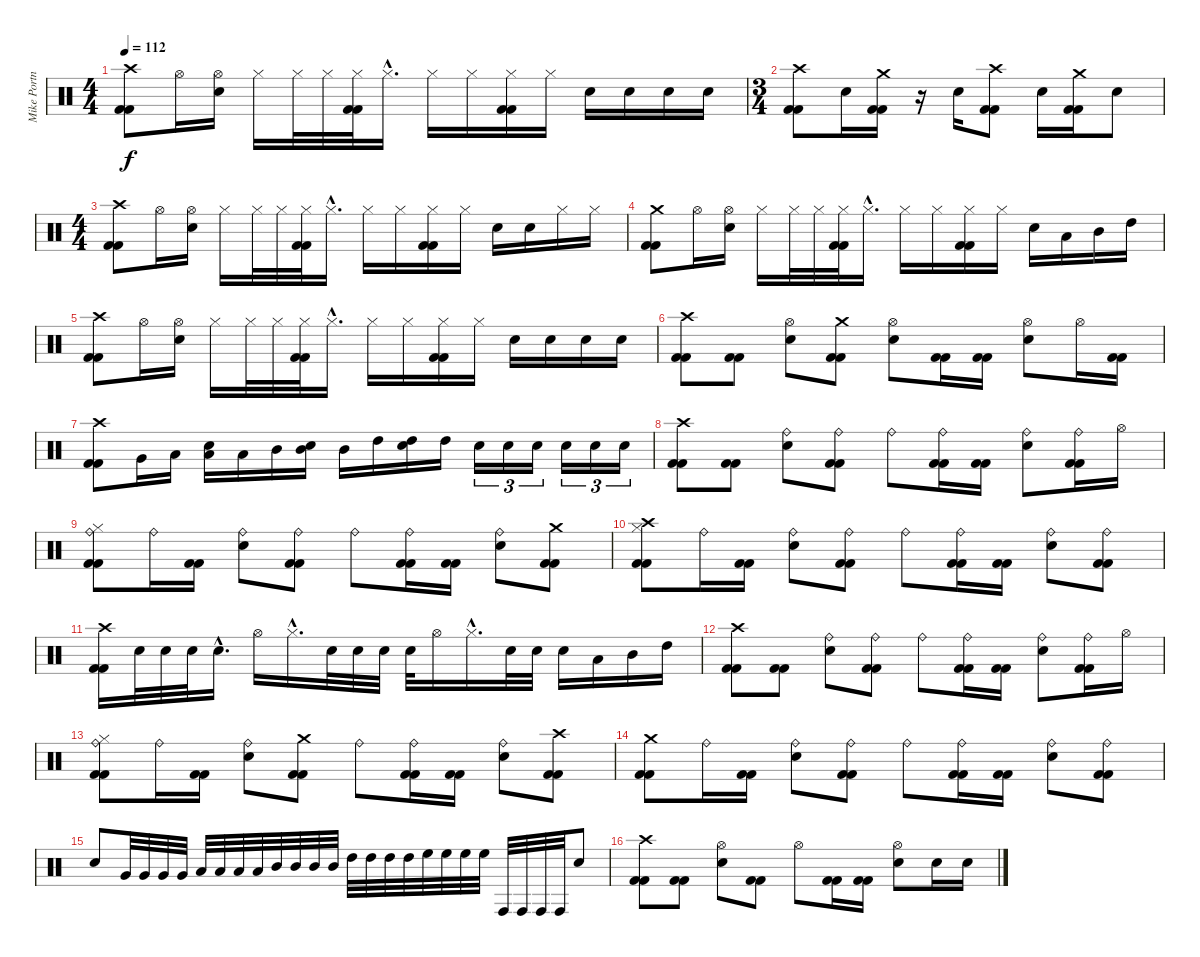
\track ("Mike Portnoy - Drum" "Mike Portn") {instrument percussion}
\staff {score}
\articulation defaults
\ts (4 4)
\tempo 112
\clef neutral
\ks c
("Crash high (hit)" "Kick (hit) 2" "Kick (hit) 2").8{dy f} "Hi-Hat (open)".16 ("Hi-Hat (open)" "Snare (hit) 2").16 "Hi-Hat (closed)".16 "Hi-Hat (closed)".32 "Hi-Hat (closed)".32 ("Hi-Hat (closed)" "Kick (hit) 2" "Kick (hit) 2").32 "Hi-Hat (closed)"{hac}.16{d} "Hi-Hat (closed)".16 "Hi-Hat (closed)".16 ("Hi-Hat (closed)" "Kick (hit) 2" "Kick (hit) 2").16 "Hi-Hat (closed)".16 "Snare (hit) 2".16 "Snare (hit) 2".16 "Snare (hit) 2".16 "Snare (hit) 2".16 |
\ts (3 4)
("Crash high (hit)" "Kick (hit) 2" "Kick (hit) 2").8 "Snare (hit) 2".16 ("Crash medium (hit)" "Kick (hit) 2" "Kick (hit) 2").16 r.16 "Snare (hit) 2".16 ("Crash high (hit)" "Kick (hit) 2" "Kick (hit) 2").8 "Snare (hit) 2".16 ("Crash medium (hit)" "Kick (hit) 2" "Kick (hit) 2").16 "Snare (hit) 2".8 |
\ts (4 4)
("Crash high (hit)" "Kick (hit) 2" "Kick (hit) 2").8 "Hi-Hat (open)".16 ("Hi-Hat (open)" "Snare (hit) 2").16 "Hi-Hat (closed)".16 "Hi-Hat (closed)".32 "Hi-Hat (closed)".32 ("Hi-Hat (closed)" "Kick (hit) 2" "Kick (hit) 2").32 "Hi-Hat (closed)"{hac}.16{d} "Hi-Hat (closed)".16 "Hi-Hat (closed)".16 ("Hi-Hat (closed)" "Kick (hit) 2" "Kick (hit) 2").16 "Hi-Hat (closed)".16 "Snare (hit) 2".16 "Snare (hit) 2".16 "Hi-Hat (closed)".16 "Hi-Hat (closed)".16 |
("Crash medium (hit)" "Kick (hit) 2" "Kick (hit) 2").8 "Hi-Hat (open)".16 ("Hi-Hat (open)" "Snare (hit) 2").16 "Hi-Hat (closed)".16 "Hi-Hat (closed)".32 "Hi-Hat (closed)".32 ("Hi-Hat (closed)" "Kick (hit) 2" "Kick (hit) 2").32 "Hi-Hat (closed)"{hac}.16{d} "Hi-Hat (closed)".16 "Hi-Hat (closed)".16 ("Hi-Hat (closed)" "Kick (hit) 2" "Kick (hit) 2").16 "Hi-Hat (closed)".16 "Snare (hit) 2".16 "Low Tom (hit)".16 "Mid Tom (hit)".16 "High Tom (hit)".16 |
("Crash high (hit)" "Kick (hit) 2" "Kick (hit) 2").8 "Hi-Hat (open)".16 ("Hi-Hat (open)" "Snare (hit) 2").16 "Hi-Hat (closed)".16 "Hi-Hat (closed)".32 "Hi-Hat (closed)".32 ("Hi-Hat (closed)" "Kick (hit) 2" "Kick (hit) 2").32 "Hi-Hat (closed)"{hac}.16{d} "Hi-Hat (closed)".16 "Hi-Hat (closed)".16 ("Hi-Hat (closed)" "Kick (hit) 2" "Kick (hit) 2").16 "Hi-Hat (closed)".16 "Snare (hit) 2".16 "Snare (hit) 2".16 "Snare (hit) 2".16 "Snare (hit) 2".16 |
("Crash high (hit)" "Kick (hit) 2" "Kick (hit) 2").8 ("Kick (hit) 2" "Kick (hit) 2").8 ("Hi-Hat (open)" "Snare (hit) 2").8 ("Crash medium (hit)" "Kick (hit) 2" "Kick (hit) 2").8 ("Hi-Hat (open)" "Snare (hit) 2").8 ("Kick (hit) 2" "Kick (hit) 2").16 ("Kick (hit) 2" "Kick (hit) 2").16 ("Hi-Hat (open)" "Snare (hit) 2").8 "Hi-Hat (open)".16 ("Kick (hit) 2" "Kick (hit) 2").16 |
("Crash high (hit)" "Kick (hit) 2" "Kick (hit) 2").8 "Very Low Tom (hit)".16 "Low Tom (hit)".16 ("Snare (hit) 2" "Low Tom (hit)").16 "Low Tom (hit)".16 "Mid Tom (hit)".16 ("Snare (hit) 2" "Mid Tom (hit)").16 "Mid Tom (hit)".16 "High Tom (hit)".16 ("High Tom (hit)" "Snare (hit) 2").16 "High Tom (hit)".16 "Snare (hit) 2".16{tu (3 2)} "Snare (hit) 2".16{tu (3 2)} "Snare (hit) 2".16{tu (3 2)} "Snare (hit) 2".16{tu (3 2)} "Snare (hit) 2".16{tu (3 2)} "Snare (hit) 2".16{tu (3 2)} |
("Crash high (hit)" "Kick (hit) 2" "Kick (hit) 2").8 ("Kick (hit) 2" "Kick (hit) 2").8 ("Ride (bell)" "Snare (hit) 2").8 ("Ride (bell)" "Kick (hit) 2" "Kick (hit) 2").8 "Ride (bell)".8 ("Ride (bell)" "Kick (hit) 2" "Kick (hit) 2").16 ("Kick (hit) 2" "Kick (hit) 2").16 ("Ride (bell)" "Snare (hit) 2").8 ("Ride (bell)" "Kick (hit) 2" "Kick (hit) 2").16 "Hi-Hat (open)".16 |
("Ride (bell)" "Hi-Hat (closed)" "Kick (hit) 2" "Kick (hit) 2").8 "Ride (bell)".16 ("Kick (hit) 2" "Kick (hit) 2").16 ("Ride (bell)" "Snare (hit) 2").8 ("Ride (bell)" "Kick (hit) 2" "Kick (hit) 2").8 "Ride (bell)".8 ("Ride (bell)" "Kick (hit) 2" "Kick (hit) 2").16 ("Kick (hit) 2" "Kick (hit) 2").16 ("Ride (bell)" "Snare (hit) 2").8 ("Crash medium (hit)" "Kick (hit) 2" "Kick (hit) 2").8 |
("Crash high (hit)" "Hi-Hat (closed)" "Kick (hit) 2" "Kick (hit) 2").8 "Ride (bell)".16 ("Kick (hit) 2" "Kick (hit) 2").16 ("Ride (bell)" "Snare (hit) 2").8 ("Ride (bell)" "Kick (hit) 2" "Kick (hit) 2").8 "Ride (bell)".8 ("Ride (bell)" "Kick (hit) 2" "Kick (hit) 2").16 ("Kick (hit) 2" "Kick (hit) 2").16 ("Ride (bell)" "Snare (hit) 2").8 ("Ride (bell)" "Kick (hit) 2" "Kick (hit) 2").8 |
("Crash high (hit)" "Kick (hit) 2" "Kick (hit) 2").16 "Snare (hit) 2".32 "Snare (hit) 2".32 "Snare (hit) 2".32 "Snare (hit) 2"{hac}.16{d} "Hi-Hat (open)".16 "Hi-Hat (closed)"{hac}.16{d} "Snare (hit) 2".32 "Snare (hit) 2".32 "Snare (hit) 2".32 "Snare (hit) 2".32 "Hi-Hat (open)".16 "Hi-Hat (closed)"{hac}.16{d} "Snare (hit) 2".32 "Snare (hit) 2".32 "Snare (hit) 2".16 "Low Tom (hit)".16 "Mid Tom (hit)".16 "High Tom (hit)".16 |
("Crash high (hit)" "Kick (hit) 2" "Kick (hit) 2").8 ("Kick (hit) 2" "Kick (hit) 2").8 ("Ride (bell)" "Snare (hit) 2").8 ("Ride (bell)" "Kick (hit) 2" "Kick (hit) 2").8 "Ride (bell)".8 ("Ride (bell)" "Kick (hit) 2" "Kick (hit) 2").16 ("Kick (hit) 2" "Kick (hit) 2").16 ("Ride (bell)" "Snare (hit) 2").8 ("Ride (bell)" "Kick (hit) 2" "Kick (hit) 2").16 "Hi-Hat (open)".16 |
("Ride (bell)" "Hi-Hat (closed)" "Kick (hit) 2" "Kick (hit) 2").8 "Ride (bell)".16 ("Kick (hit) 2" "Kick (hit) 2").16 ("Ride (bell)" "Snare (hit) 2").8 ("Crash medium (hit)" "Kick (hit) 2" "Kick (hit) 2").8 "Ride (bell)".8 ("Ride (bell)" "Kick (hit) 2" "Kick (hit) 2").16 ("Kick (hit) 2" "Kick (hit) 2").16 ("Ride (bell)" "Snare (hit) 2").8 ("Crash high (hit)" "Kick (hit) 2" "Kick (hit) 2").8 |
("Crash medium (hit)" "Kick (hit) 2" "Kick (hit) 2").8 "Ride (bell)".16 ("Kick (hit) 2" "Kick (hit) 2").16 ("Ride (bell)" "Snare (hit) 2").8 ("Ride (bell)" "Kick (hit) 2" "Kick (hit) 2").8 "Ride (bell)".8 ("Ride (bell)" "Kick (hit) 2" "Kick (hit) 2").16 ("Kick (hit) 2" "Kick (hit) 2").16 ("Ride (bell)" "Snare (hit) 2").8 ("Ride (bell)" "Kick (hit) 2" "Kick (hit) 2").8 |
"Snare (hit) 2".8 "Very Low Tom (hit)".32 "Very Low Tom (hit)".32 "Very Low Tom (hit)".32 "Very Low Tom (hit)".32 "Low Tom (hit)".32 "Low Tom (hit)".32 "Low Tom (hit)".32 "Low Tom (hit)".32 "Mid Tom (hit)".32 "Mid Tom (hit)".32 "Mid Tom (hit)".32 "Mid Tom (hit)".32 "High Tom (hit)".32 "High Tom (hit)".32 "High Tom (hit)".32 "High Tom (hit)".32 "High Floor Tom (hit)".32 "High Floor Tom (hit)".32 "High Floor Tom (hit)".32 "High Floor Tom (hit)".32 "Conga high (hit)".32 "Conga high (hit)".32 "Conga high (hit)".32 "Conga high (hit)".32 "Snare (hit) 2".8 |
("Crash high (hit)" "Kick (hit) 2" "Kick (hit) 2").8 ("Kick (hit) 2" "Kick (hit) 2").8 ("Hi-Hat (open)" "Snare (hit) 2").8 ("Kick (hit) 2" "Kick (hit) 2").8 "Hi-Hat (open)".8 ("Kick (hit) 2" "Kick (hit) 2").16 ("Kick (hit) 2" "Kick (hit) 2").16 ("Hi-Hat (open)" "Snare (hit) 2").8 "Snare (hit) 2".16 "Snare (hit) 2".16
